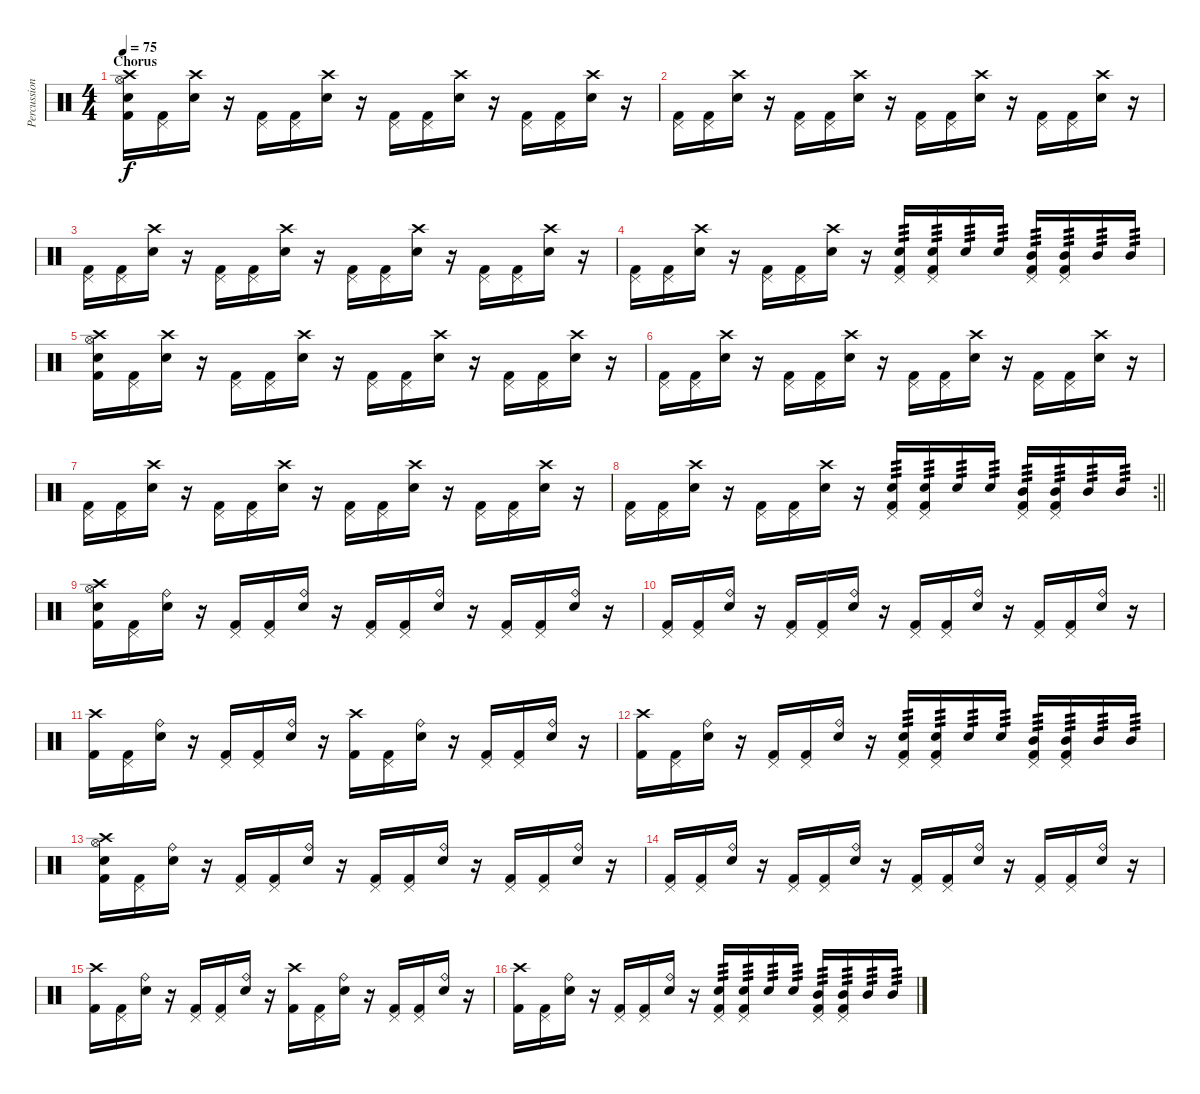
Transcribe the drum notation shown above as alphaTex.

\track ("Percussion" "Percussion") {instrument percussion}
\staff {score}
\articulation defaults
\ts (4 4)
\section ("" "Chorus")
\tempo 75
\clef neutral
\ks c
("Kick (hit) 2" "Snare (hit) 2" "Hi-Hat (open)" "Crash high (hit)").16{dy f} ("Kick (hit) 2" "Pedal Hi-Hat (hit)").16 ("Snare (hit) 2" "Crash high (hit)").16 r.16 ("Kick (hit) 2" "Pedal Hi-Hat (hit)").16 ("Kick (hit) 2" "Pedal Hi-Hat (hit)").16 ("Snare (hit) 2" "Crash high (hit)").16 r.16 ("Kick (hit) 2" "Pedal Hi-Hat (hit)").16 ("Kick (hit) 2" "Pedal Hi-Hat (hit)").16 ("Snare (hit) 2" "Crash high (hit)").16 r.16 ("Kick (hit) 2" "Pedal Hi-Hat (hit)").16 ("Kick (hit) 2" "Pedal Hi-Hat (hit)").16 ("Snare (hit) 2" "Crash high (hit)").16 r.16 |
("Kick (hit) 2" "Pedal Hi-Hat (hit)").16 ("Kick (hit) 2" "Pedal Hi-Hat (hit)").16 ("Snare (hit) 2" "Crash high (hit)").16 r.16 ("Kick (hit) 2" "Pedal Hi-Hat (hit)").16 ("Kick (hit) 2" "Pedal Hi-Hat (hit)").16 ("Snare (hit) 2" "Crash high (hit)").16 r.16 ("Kick (hit) 2" "Pedal Hi-Hat (hit)").16 ("Kick (hit) 2" "Pedal Hi-Hat (hit)").16 ("Snare (hit) 2" "Crash high (hit)").16 r.16 ("Kick (hit) 2" "Pedal Hi-Hat (hit)").16 ("Kick (hit) 2" "Pedal Hi-Hat (hit)").16 ("Snare (hit) 2" "Crash high (hit)").16 r.16 |
("Kick (hit) 2" "Pedal Hi-Hat (hit)").16 ("Kick (hit) 2" "Pedal Hi-Hat (hit)").16 ("Snare (hit) 2" "Crash high (hit)").16 r.16 ("Kick (hit) 2" "Pedal Hi-Hat (hit)").16 ("Kick (hit) 2" "Pedal Hi-Hat (hit)").16 ("Snare (hit) 2" "Crash high (hit)").16 r.16 ("Kick (hit) 2" "Pedal Hi-Hat (hit)").16 ("Kick (hit) 2" "Pedal Hi-Hat (hit)").16 ("Snare (hit) 2" "Crash high (hit)").16 r.16 ("Kick (hit) 2" "Pedal Hi-Hat (hit)").16 ("Kick (hit) 2" "Pedal Hi-Hat (hit)").16 ("Snare (hit) 2" "Crash high (hit)").16 r.16 |
("Kick (hit) 2" "Pedal Hi-Hat (hit)").16 ("Kick (hit) 2" "Pedal Hi-Hat (hit)").16 ("Snare (hit) 2" "Crash high (hit)").16 r.16 ("Kick (hit) 2" "Pedal Hi-Hat (hit)").16 ("Kick (hit) 2" "Pedal Hi-Hat (hit)").16 ("Snare (hit) 2" "Crash high (hit)").16 r.16 ("Kick (hit) 2" "Snare (hit) 2" "Pedal Hi-Hat (hit)").16{tp 3} ("Kick (hit) 2" "Snare (hit) 2" "Pedal Hi-Hat (hit)").16{tp 3} "Snare (hit) 2".16{tp 3} "Snare (hit) 2".16{tp 3} ("Kick (hit) 2" "Mid Tom (hit)" "Pedal Hi-Hat (hit)").16{tp 3} ("Kick (hit) 2" "Mid Tom (hit)" "Pedal Hi-Hat (hit)").16{tp 3} "Mid Tom (hit)".16{tp 3} "Mid Tom (hit)".16{tp 3} |
("Kick (hit) 2" "Snare (hit) 2" "Hi-Hat (open)" "Crash high (hit)").16 ("Kick (hit) 2" "Pedal Hi-Hat (hit)").16 ("Snare (hit) 2" "Crash high (hit)").16 r.16 ("Kick (hit) 2" "Pedal Hi-Hat (hit)").16 ("Kick (hit) 2" "Pedal Hi-Hat (hit)").16 ("Snare (hit) 2" "Crash high (hit)").16 r.16 ("Kick (hit) 2" "Pedal Hi-Hat (hit)").16 ("Kick (hit) 2" "Pedal Hi-Hat (hit)").16 ("Snare (hit) 2" "Crash high (hit)").16 r.16 ("Kick (hit) 2" "Pedal Hi-Hat (hit)").16 ("Kick (hit) 2" "Pedal Hi-Hat (hit)").16 ("Snare (hit) 2" "Crash high (hit)").16 r.16 |
("Kick (hit) 2" "Pedal Hi-Hat (hit)").16 ("Kick (hit) 2" "Pedal Hi-Hat (hit)").16 ("Snare (hit) 2" "Crash high (hit)").16 r.16 ("Kick (hit) 2" "Pedal Hi-Hat (hit)").16 ("Kick (hit) 2" "Pedal Hi-Hat (hit)").16 ("Snare (hit) 2" "Crash high (hit)").16 r.16 ("Kick (hit) 2" "Pedal Hi-Hat (hit)").16 ("Kick (hit) 2" "Pedal Hi-Hat (hit)").16 ("Snare (hit) 2" "Crash high (hit)").16 r.16 ("Kick (hit) 2" "Pedal Hi-Hat (hit)").16 ("Kick (hit) 2" "Pedal Hi-Hat (hit)").16 ("Snare (hit) 2" "Crash high (hit)").16 r.16 |
("Kick (hit) 2" "Pedal Hi-Hat (hit)").16 ("Kick (hit) 2" "Pedal Hi-Hat (hit)").16 ("Snare (hit) 2" "Crash high (hit)").16 r.16 ("Kick (hit) 2" "Pedal Hi-Hat (hit)").16 ("Kick (hit) 2" "Pedal Hi-Hat (hit)").16 ("Snare (hit) 2" "Crash high (hit)").16 r.16 ("Kick (hit) 2" "Pedal Hi-Hat (hit)").16 ("Kick (hit) 2" "Pedal Hi-Hat (hit)").16 ("Snare (hit) 2" "Crash high (hit)").16 r.16 ("Kick (hit) 2" "Pedal Hi-Hat (hit)").16 ("Kick (hit) 2" "Pedal Hi-Hat (hit)").16 ("Snare (hit) 2" "Crash high (hit)").16 r.16 |
\rc 2
\barLineRight lightlight
("Kick (hit) 2" "Pedal Hi-Hat (hit)").16 ("Kick (hit) 2" "Pedal Hi-Hat (hit)").16 ("Snare (hit) 2" "Crash high (hit)").16 r.16 ("Kick (hit) 2" "Pedal Hi-Hat (hit)").16 ("Kick (hit) 2" "Pedal Hi-Hat (hit)").16 ("Snare (hit) 2" "Crash high (hit)").16 r.16 ("Kick (hit) 2" "Snare (hit) 2" "Pedal Hi-Hat (hit)").16{tp 3} ("Kick (hit) 2" "Snare (hit) 2" "Pedal Hi-Hat (hit)").16{tp 3} "Snare (hit) 2".16{tp 3} "Snare (hit) 2".16{tp 3} ("Kick (hit) 2" "Mid Tom (hit)" "Pedal Hi-Hat (hit)").16{tp 3} ("Kick (hit) 2" "Mid Tom (hit)" "Pedal Hi-Hat (hit)").16{tp 3} "Mid Tom (hit)".16{tp 3} "Mid Tom (hit)".16{tp 3} |
("Kick (hit) 2" "Snare (hit) 2" "Hi-Hat (open)" "Crash high (hit)").16 ("Kick (hit) 2" "Pedal Hi-Hat (hit)").16 ("Snare (hit) 2" "Ride (bell)").16 r.16 ("Kick (hit) 2" "Pedal Hi-Hat (hit)").16 ("Kick (hit) 2" "Pedal Hi-Hat (hit)").16 ("Snare (hit) 2" "Ride (bell)").16 r.16 ("Kick (hit) 2" "Pedal Hi-Hat (hit)").16 ("Kick (hit) 2" "Pedal Hi-Hat (hit)").16 ("Snare (hit) 2" "Ride (bell)").16 r.16 ("Kick (hit) 2" "Pedal Hi-Hat (hit)").16 ("Kick (hit) 2" "Pedal Hi-Hat (hit)").16 ("Snare (hit) 2" "Ride (bell)").16 r.16 |
("Kick (hit) 2" "Pedal Hi-Hat (hit)").16 ("Kick (hit) 2" "Pedal Hi-Hat (hit)").16 ("Snare (hit) 2" "Ride (bell)").16 r.16 ("Kick (hit) 2" "Pedal Hi-Hat (hit)").16 ("Kick (hit) 2" "Pedal Hi-Hat (hit)").16 ("Snare (hit) 2" "Ride (bell)").16 r.16 ("Kick (hit) 2" "Pedal Hi-Hat (hit)").16 ("Kick (hit) 2" "Pedal Hi-Hat (hit)").16 ("Snare (hit) 2" "Ride (bell)").16 r.16 ("Kick (hit) 2" "Pedal Hi-Hat (hit)").16 ("Kick (hit) 2" "Pedal Hi-Hat (hit)").16 ("Snare (hit) 2" "Ride (bell)").16 r.16 |
("Kick (hit) 2" "Crash high (hit)").16 ("Kick (hit) 2" "Pedal Hi-Hat (hit)").16 ("Snare (hit) 2" "Ride (bell)").16 r.16 ("Kick (hit) 2" "Pedal Hi-Hat (hit)").16 ("Kick (hit) 2" "Pedal Hi-Hat (hit)").16 ("Snare (hit) 2" "Ride (bell)").16 r.16 ("Kick (hit) 2" "Crash high (hit)").16 ("Kick (hit) 2" "Pedal Hi-Hat (hit)").16 ("Snare (hit) 2" "Ride (bell)").16 r.16 ("Kick (hit) 2" "Pedal Hi-Hat (hit)").16 ("Kick (hit) 2" "Pedal Hi-Hat (hit)").16 ("Snare (hit) 2" "Ride (bell)").16 r.16 |
("Kick (hit) 2" "Crash high (hit)").16 ("Kick (hit) 2" "Pedal Hi-Hat (hit)").16 ("Snare (hit) 2" "Ride (bell)").16 r.16 ("Kick (hit) 2" "Pedal Hi-Hat (hit)").16 ("Kick (hit) 2" "Pedal Hi-Hat (hit)").16 ("Snare (hit) 2" "Ride (bell)").16 r.16 ("Kick (hit) 2" "Snare (hit) 2" "Pedal Hi-Hat (hit)").16{tp 3} ("Kick (hit) 2" "Snare (hit) 2" "Pedal Hi-Hat (hit)").16{tp 3} "Snare (hit) 2".16{tp 3} "Snare (hit) 2".16{tp 3} ("Kick (hit) 2" "Mid Tom (hit)" "Pedal Hi-Hat (hit)").16{tp 3} ("Kick (hit) 2" "Mid Tom (hit)" "Pedal Hi-Hat (hit)").16{tp 3} "Mid Tom (hit)".16{tp 3} "Mid Tom (hit)".16{tp 3} |
("Kick (hit) 2" "Snare (hit) 2" "Hi-Hat (open)" "Crash high (hit)").16 ("Kick (hit) 2" "Pedal Hi-Hat (hit)").16 ("Snare (hit) 2" "Ride (bell)").16 r.16 ("Kick (hit) 2" "Pedal Hi-Hat (hit)").16 ("Kick (hit) 2" "Pedal Hi-Hat (hit)").16 ("Snare (hit) 2" "Ride (bell)").16 r.16 ("Kick (hit) 2" "Pedal Hi-Hat (hit)").16 ("Kick (hit) 2" "Pedal Hi-Hat (hit)").16 ("Snare (hit) 2" "Ride (bell)").16 r.16 ("Kick (hit) 2" "Pedal Hi-Hat (hit)").16 ("Kick (hit) 2" "Pedal Hi-Hat (hit)").16 ("Snare (hit) 2" "Ride (bell)").16 r.16 |
("Kick (hit) 2" "Pedal Hi-Hat (hit)").16 ("Kick (hit) 2" "Pedal Hi-Hat (hit)").16 ("Snare (hit) 2" "Ride (bell)").16 r.16 ("Kick (hit) 2" "Pedal Hi-Hat (hit)").16 ("Kick (hit) 2" "Pedal Hi-Hat (hit)").16 ("Snare (hit) 2" "Ride (bell)").16 r.16 ("Kick (hit) 2" "Pedal Hi-Hat (hit)").16 ("Kick (hit) 2" "Pedal Hi-Hat (hit)").16 ("Snare (hit) 2" "Ride (bell)").16 r.16 ("Kick (hit) 2" "Pedal Hi-Hat (hit)").16 ("Kick (hit) 2" "Pedal Hi-Hat (hit)").16 ("Snare (hit) 2" "Ride (bell)").16 r.16 |
("Kick (hit) 2" "Crash high (hit)").16 ("Kick (hit) 2" "Pedal Hi-Hat (hit)").16 ("Snare (hit) 2" "Ride (bell)").16 r.16 ("Kick (hit) 2" "Pedal Hi-Hat (hit)").16 ("Kick (hit) 2" "Pedal Hi-Hat (hit)").16 ("Snare (hit) 2" "Ride (bell)").16 r.16 ("Kick (hit) 2" "Crash high (hit)").16 ("Kick (hit) 2" "Pedal Hi-Hat (hit)").16 ("Snare (hit) 2" "Ride (bell)").16 r.16 ("Kick (hit) 2" "Pedal Hi-Hat (hit)").16 ("Kick (hit) 2" "Pedal Hi-Hat (hit)").16 ("Snare (hit) 2" "Ride (bell)").16 r.16 |
("Kick (hit) 2" "Crash high (hit)").16 ("Kick (hit) 2" "Pedal Hi-Hat (hit)").16 ("Snare (hit) 2" "Ride (bell)").16 r.16 ("Kick (hit) 2" "Pedal Hi-Hat (hit)").16 ("Kick (hit) 2" "Pedal Hi-Hat (hit)").16 ("Snare (hit) 2" "Ride (bell)").16 r.16 ("Kick (hit) 2" "Snare (hit) 2" "Pedal Hi-Hat (hit)").16{tp 3} ("Kick (hit) 2" "Snare (hit) 2" "Pedal Hi-Hat (hit)").16{tp 3} "Snare (hit) 2".16{tp 3} "Snare (hit) 2".16{tp 3} ("Kick (hit) 2" "Mid Tom (hit)" "Pedal Hi-Hat (hit)").16{tp 3} ("Kick (hit) 2" "Mid Tom (hit)" "Pedal Hi-Hat (hit)").16{tp 3} "Mid Tom (hit)".16{tp 3} "Mid Tom (hit)".16{tp 3}
